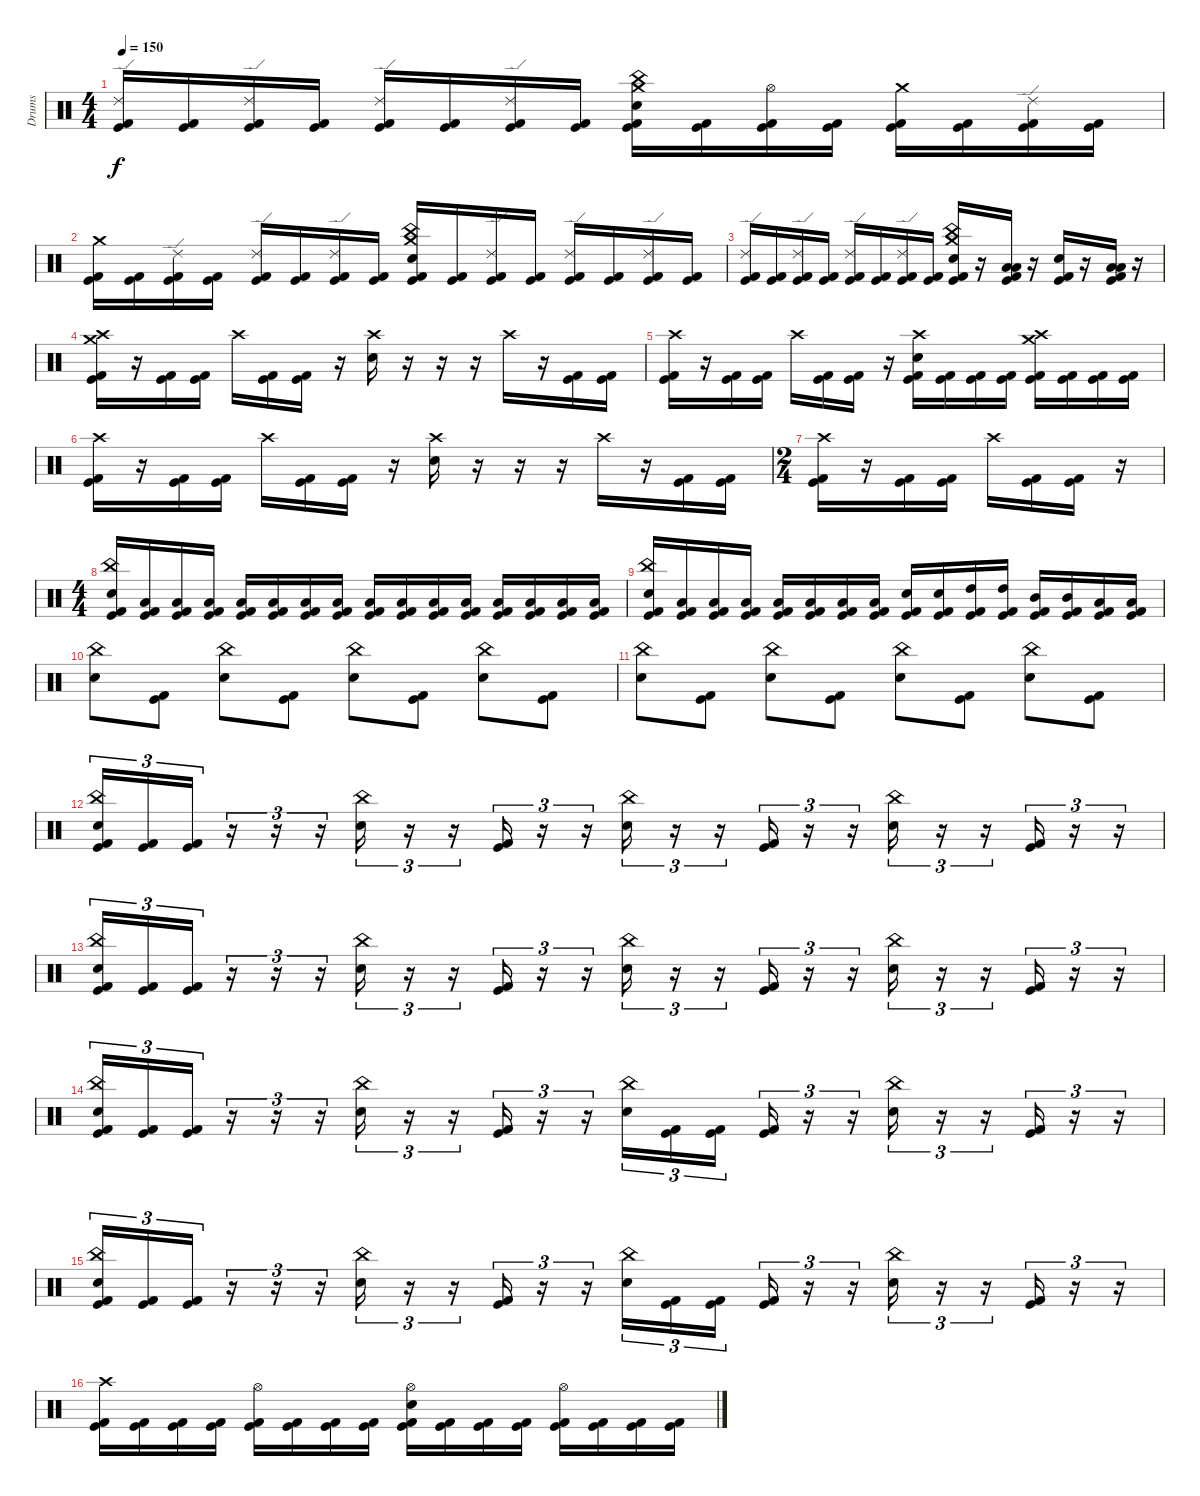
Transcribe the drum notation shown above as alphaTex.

\track ("Drums" "Drums") {instrument percussion}
\staff {score}
\articulation defaults
\ts (4 4)
\tempo 150
\clef neutral
\ks c
("Ride (edge) 2" "Kick (hit)" "Kick (hit) 2").16{dy f} ("Kick (hit)" "Kick (hit) 2").16 ("Ride (edge) 2" "Kick (hit)" "Kick (hit) 2").16 ("Kick (hit)" "Kick (hit) 2").16 ("Ride (edge) 2" "Kick (hit)" "Kick (hit) 2").16 ("Kick (hit)" "Kick (hit) 2").16 ("Ride (edge) 2" "Kick (hit)" "Kick (hit) 2").16 ("Kick (hit)" "Kick (hit) 2").16 ("Crash medium (hit)" "China (hit)" "Electric Snare (hit)" "Kick (hit)" "Kick (hit) 2").16 ("Kick (hit)" "Kick (hit) 2").16 ("Hi-Hat (open)" "Kick (hit)" "Kick (hit) 2").16 ("Kick (hit)" "Kick (hit) 2").16 ("Crash medium (hit)" "Kick (hit)" "Kick (hit) 2").16 ("Kick (hit)" "Kick (hit) 2").16 ("Ride (edge) 2" "Kick (hit)" "Kick (hit) 2").16 ("Kick (hit)" "Kick (hit) 2").16 |
("Crash medium (hit)" "Kick (hit)" "Kick (hit) 2").16 ("Kick (hit)" "Kick (hit) 2").16 ("Ride (edge) 2" "Kick (hit)" "Kick (hit) 2").16 ("Kick (hit)" "Kick (hit) 2").16 ("Ride (edge) 2" "Kick (hit)" "Kick (hit) 2").16 ("Kick (hit)" "Kick (hit) 2").16 ("Ride (edge) 2" "Kick (hit)" "Kick (hit) 2").16 ("Kick (hit)" "Kick (hit) 2").16 ("Crash medium (hit)" "China (hit)" "Electric Snare (hit)" "Kick (hit)" "Kick (hit) 2").16 ("Kick (hit)" "Kick (hit) 2").16 ("Ride (edge) 2" "Kick (hit)" "Kick (hit) 2").16 ("Kick (hit)" "Kick (hit) 2").16 ("Ride (edge) 2" "Kick (hit)" "Kick (hit) 2").16 ("Kick (hit)" "Kick (hit) 2").16 ("Ride (edge) 2" "Kick (hit)" "Kick (hit) 2").16 ("Kick (hit)" "Kick (hit) 2").16 |
("Ride (edge) 2" "Kick (hit)" "Kick (hit) 2").16 ("Kick (hit)" "Kick (hit) 2").16 ("Ride (edge) 2" "Kick (hit)" "Kick (hit) 2").16 ("Kick (hit)" "Kick (hit) 2").16 ("Ride (edge) 2" "Kick (hit)" "Kick (hit) 2").16 ("Kick (hit)" "Kick (hit) 2").16 ("Ride (edge) 2" "Kick (hit)" "Kick (hit) 2").16 ("Kick (hit)" "Kick (hit) 2").16 ("Crash medium (hit)" "China (hit)" "Electric Snare (hit)" "Kick (hit)" "Kick (hit) 2").16 r.16 ("Low Floor Tom (hit)" "Low Tom (hit)" "Kick (hit)" "Kick (hit) 2").16 r.16 ("Electric Snare (hit)" "Kick (hit)" "Kick (hit) 2").16 r.16 ("Low Floor Tom (hit)" "Low Tom (hit)" "Kick (hit)" "Kick (hit) 2").16 r.16 |
("Crash medium (hit)" "Crash high (hit)" "Kick (hit)" "Kick (hit) 2").16 r.16 ("Kick (hit)" "Kick (hit) 2").16 ("Kick (hit)" "Kick (hit) 2").16 "Crash high (hit)".16 ("Kick (hit)" "Kick (hit) 2").16 ("Kick (hit)" "Kick (hit) 2").16 r.16 ("Crash high (hit)" "Electric Snare (hit)").16 r.16 r.16 r.16 "Crash high (hit)".16 r.16 ("Kick (hit)" "Kick (hit) 2").16 ("Kick (hit)" "Kick (hit) 2").16 |
("Crash high (hit)" "Kick (hit)" "Kick (hit) 2").16 r.16 ("Kick (hit)" "Kick (hit) 2").16 ("Kick (hit)" "Kick (hit) 2").16 "Crash high (hit)".16 ("Kick (hit)" "Kick (hit) 2").16 ("Kick (hit)" "Kick (hit) 2").16 r.16 ("Crash high (hit)" "Electric Snare (hit)" "Kick (hit)" "Kick (hit) 2").16 ("Kick (hit)" "Kick (hit) 2").16 ("Kick (hit)" "Kick (hit) 2").16 ("Kick (hit)" "Kick (hit) 2").16 ("Crash medium (hit)" "Crash high (hit)" "Kick (hit)" "Kick (hit) 2").16 ("Kick (hit)" "Kick (hit) 2").16 ("Kick (hit)" "Kick (hit) 2").16 ("Kick (hit)" "Kick (hit) 2").16 |
("Crash high (hit)" "Kick (hit)" "Kick (hit) 2").16 r.16 ("Kick (hit)" "Kick (hit) 2").16 ("Kick (hit)" "Kick (hit) 2").16 "Crash high (hit)".16 ("Kick (hit)" "Kick (hit) 2").16 ("Kick (hit)" "Kick (hit) 2").16 r.16 ("Crash high (hit)" "Electric Snare (hit)").16 r.16 r.16 r.16 "Crash high (hit)".16 r.16 ("Kick (hit)" "Kick (hit) 2").16 ("Kick (hit)" "Kick (hit) 2").16 |
\ts (2 4)
("Crash high (hit)" "Kick (hit)" "Kick (hit) 2").16 r.16 ("Kick (hit)" "Kick (hit) 2").16 ("Kick (hit)" "Kick (hit) 2").16 "Crash high (hit)".16 ("Kick (hit)" "Kick (hit) 2").16 ("Kick (hit)" "Kick (hit) 2").16 r.16 |
\ts (4 4)
("China (hit)" "Electric Snare (hit)" "Kick (hit)" "Kick (hit) 2").16 ("Low Tom (hit)" "Kick (hit)" "Kick (hit) 2").16 ("Low Floor Tom (hit)" "Kick (hit)" "Kick (hit) 2").16 ("Low Tom (hit)" "Kick (hit)" "Kick (hit) 2").16 ("Low Floor Tom (hit)" "Kick (hit)" "Kick (hit) 2").16 ("Low Tom (hit)" "Kick (hit)" "Kick (hit) 2").16 ("Low Floor Tom (hit)" "Kick (hit)" "Kick (hit) 2").16 ("Low Tom (hit)" "Kick (hit)" "Kick (hit) 2").16 ("Low Floor Tom (hit)" "Kick (hit)" "Kick (hit) 2").16 ("Low Tom (hit)" "Kick (hit)" "Kick (hit) 2").16 ("Low Floor Tom (hit)" "Kick (hit)" "Kick (hit) 2").16 ("Low Tom (hit)" "Kick (hit)" "Kick (hit) 2").16 ("Low Floor Tom (hit)" "Kick (hit)" "Kick (hit) 2").16 ("Low Tom (hit)" "Kick (hit)" "Kick (hit) 2").16 ("Low Floor Tom (hit)" "Kick (hit)" "Kick (hit) 2").16 ("Low Tom (hit)" "Kick (hit)" "Kick (hit) 2").16 |
("China (hit)" "Electric Snare (hit)" "Kick (hit)" "Kick (hit) 2").16 ("Low Floor Tom (hit)" "Kick (hit)" "Kick (hit) 2").16 ("Low Tom (hit)" "Kick (hit)" "Kick (hit) 2").16 ("Low Floor Tom (hit)" "Kick (hit)" "Kick (hit) 2").16 ("Low Tom (hit)" "Kick (hit)" "Kick (hit) 2").16 ("Low Floor Tom (hit)" "Kick (hit)" "Kick (hit) 2").16 ("Low Tom (hit)" "Kick (hit)" "Kick (hit) 2").16 ("Low Floor Tom (hit)" "Kick (hit)" "Kick (hit) 2").16 ("Electric Snare (hit)" "Kick (hit)" "Kick (hit) 2").16 ("Electric Snare (hit)" "Kick (hit)" "Kick (hit) 2").16 ("High Tom (hit)" "Kick (hit)" "Kick (hit) 2").16 ("High Tom (hit)" "Kick (hit)" "Kick (hit) 2").16 ("Mid Tom (hit)" "Kick (hit)" "Kick (hit) 2").16 ("Mid Tom (hit)" "Kick (hit)" "Kick (hit) 2").16 ("Low Tom (hit)" "Kick (hit)" "Kick (hit) 2").16 ("Low Tom (hit)" "Kick (hit)" "Kick (hit) 2").16 |
("China (hit)" "Electric Snare (hit)").8 ("Kick (hit)" "Kick (hit) 2").8 ("China (hit)" "Electric Snare (hit)").8 ("Kick (hit)" "Kick (hit) 2").8 ("China (hit)" "Electric Snare (hit)").8 ("Kick (hit)" "Kick (hit) 2").8 ("China (hit)" "Electric Snare (hit)").8 ("Kick (hit)" "Kick (hit) 2").8 |
("China (hit)" "Electric Snare (hit)").8 ("Kick (hit)" "Kick (hit) 2").8 ("China (hit)" "Electric Snare (hit)").8 ("Kick (hit)" "Kick (hit) 2").8 ("China (hit)" "Electric Snare (hit)").8 ("Kick (hit)" "Kick (hit) 2").8 ("China (hit)" "Electric Snare (hit)").8 ("Kick (hit)" "Kick (hit) 2").8 |
("China (hit)" "Electric Snare (hit)" "Kick (hit)" "Kick (hit) 2").16{tu (3 2)} ("Kick (hit)" "Kick (hit) 2").16{tu (3 2)} ("Kick (hit)" "Kick (hit) 2").16{tu (3 2)} r.16{tu (3 2)} r.16{tu (3 2)} r.16{tu (3 2)} ("China (hit)" "Electric Snare (hit)").16{tu (3 2)} r.16{tu (3 2)} r.16{tu (3 2)} ("Kick (hit)" "Kick (hit) 2").16{tu (3 2)} r.16{tu (3 2)} r.16{tu (3 2)} ("China (hit)" "Electric Snare (hit)").16{tu (3 2)} r.16{tu (3 2)} r.16{tu (3 2)} ("Kick (hit)" "Kick (hit) 2").16{tu (3 2)} r.16{tu (3 2)} r.16{tu (3 2)} ("China (hit)" "Electric Snare (hit)").16{tu (3 2)} r.16{tu (3 2)} r.16{tu (3 2)} ("Kick (hit)" "Kick (hit) 2").16{tu (3 2)} r.16{tu (3 2)} r.16{tu (3 2)} |
("China (hit)" "Electric Snare (hit)" "Kick (hit)" "Kick (hit) 2").16{tu (3 2)} ("Kick (hit)" "Kick (hit) 2").16{tu (3 2)} ("Kick (hit)" "Kick (hit) 2").16{tu (3 2)} r.16{tu (3 2)} r.16{tu (3 2)} r.16{tu (3 2)} ("China (hit)" "Electric Snare (hit)").16{tu (3 2)} r.16{tu (3 2)} r.16{tu (3 2)} ("Kick (hit)" "Kick (hit) 2").16{tu (3 2)} r.16{tu (3 2)} r.16{tu (3 2)} ("China (hit)" "Electric Snare (hit)").16{tu (3 2)} r.16{tu (3 2)} r.16{tu (3 2)} ("Kick (hit)" "Kick (hit) 2").16{tu (3 2)} r.16{tu (3 2)} r.16{tu (3 2)} ("China (hit)" "Electric Snare (hit)").16{tu (3 2)} r.16{tu (3 2)} r.16{tu (3 2)} ("Kick (hit)" "Kick (hit) 2").16{tu (3 2)} r.16{tu (3 2)} r.16{tu (3 2)} |
("China (hit)" "Electric Snare (hit)" "Kick (hit)" "Kick (hit) 2").16{tu (3 2)} ("Kick (hit)" "Kick (hit) 2").16{tu (3 2)} ("Kick (hit)" "Kick (hit) 2").16{tu (3 2)} r.16{tu (3 2)} r.16{tu (3 2)} r.16{tu (3 2)} ("China (hit)" "Electric Snare (hit)").16{tu (3 2)} r.16{tu (3 2)} r.16{tu (3 2)} ("Kick (hit)" "Kick (hit) 2").16{tu (3 2)} r.16{tu (3 2)} r.16{tu (3 2)} ("China (hit)" "Electric Snare (hit)").16{tu (3 2)} ("Kick (hit)" "Kick (hit) 2").16{tu (3 2)} ("Kick (hit)" "Kick (hit) 2").16{tu (3 2) beam splitsecondary} ("Kick (hit)" "Kick (hit) 2").16{tu (3 2)} r.16{tu (3 2)} r.16{tu (3 2)} ("China (hit)" "Electric Snare (hit)").16{tu (3 2)} r.16{tu (3 2)} r.16{tu (3 2)} ("Kick (hit)" "Kick (hit) 2").16{tu (3 2)} r.16{tu (3 2)} r.16{tu (3 2)} |
("China (hit)" "Electric Snare (hit)" "Kick (hit)" "Kick (hit) 2").16{tu (3 2)} ("Kick (hit)" "Kick (hit) 2").16{tu (3 2)} ("Kick (hit)" "Kick (hit) 2").16{tu (3 2)} r.16{tu (3 2)} r.16{tu (3 2)} r.16{tu (3 2)} ("China (hit)" "Electric Snare (hit)").16{tu (3 2)} r.16{tu (3 2)} r.16{tu (3 2)} ("Kick (hit)" "Kick (hit) 2").16{tu (3 2)} r.16{tu (3 2)} r.16{tu (3 2)} ("China (hit)" "Electric Snare (hit)").16{tu (3 2)} ("Kick (hit)" "Kick (hit) 2").16{tu (3 2)} ("Kick (hit)" "Kick (hit) 2").16{tu (3 2) beam splitsecondary} ("Kick (hit)" "Kick (hit) 2").16{tu (3 2)} r.16{tu (3 2)} r.16{tu (3 2)} ("China (hit)" "Electric Snare (hit)").16{tu (3 2)} r.16{tu (3 2)} r.16{tu (3 2)} ("Kick (hit)" "Kick (hit) 2").16{tu (3 2)} r.16{tu (3 2)} r.16{tu (3 2)} |
("Crash high (hit)" "Kick (hit)" "Kick (hit) 2").16 ("Kick (hit)" "Kick (hit) 2").16 ("Kick (hit)" "Kick (hit) 2").16 ("Kick (hit)" "Kick (hit) 2").16 ("Hi-Hat (open)" "Kick (hit)" "Kick (hit) 2").16 ("Kick (hit)" "Kick (hit) 2").16 ("Kick (hit)" "Kick (hit) 2").16 ("Kick (hit)" "Kick (hit) 2").16 ("Hi-Hat (open)" "Electric Snare (hit)" "Kick (hit)" "Kick (hit) 2").16 ("Kick (hit)" "Kick (hit) 2").16 ("Kick (hit)" "Kick (hit) 2").16 ("Kick (hit)" "Kick (hit) 2").16 ("Hi-Hat (open)" "Kick (hit)" "Kick (hit) 2").16 ("Kick (hit)" "Kick (hit) 2").16 ("Kick (hit)" "Kick (hit) 2").16 ("Kick (hit)" "Kick (hit) 2").16
